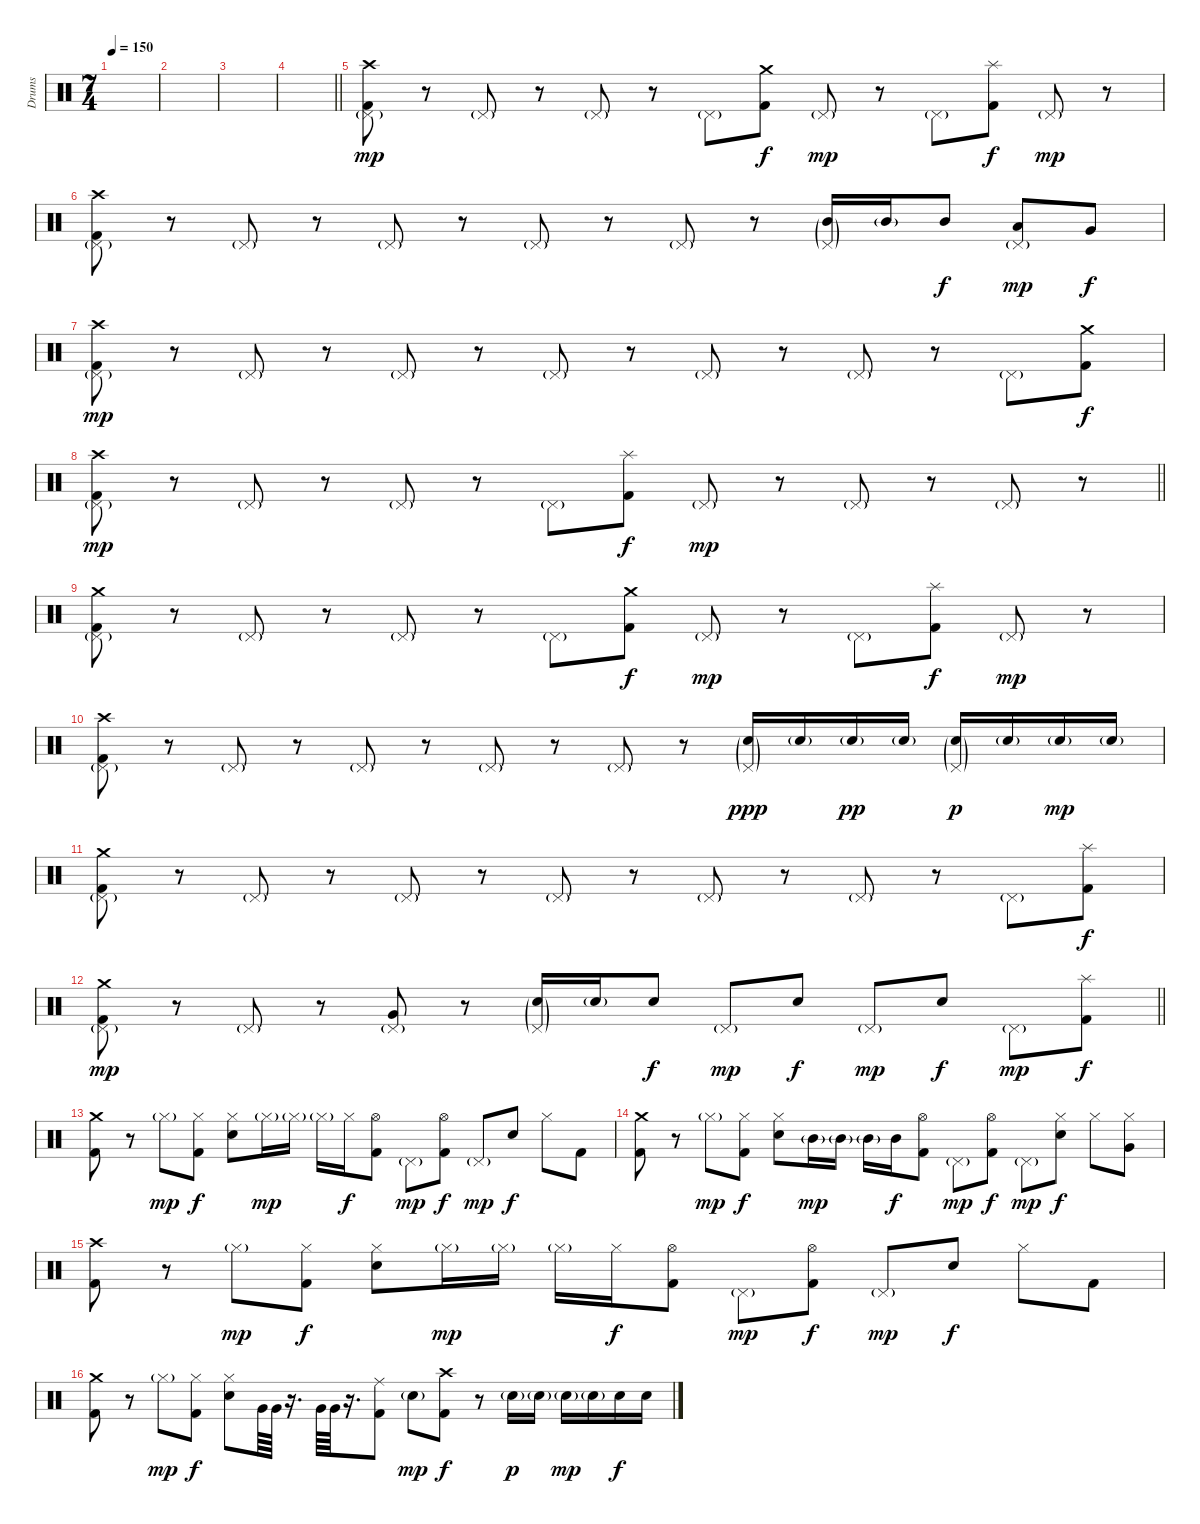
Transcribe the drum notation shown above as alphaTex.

\track ("Drums" "Drums") {instrument percussion}
\staff {score}
\articulation defaults
\ts (7 4)
\section ("" "")
\tempo 150
\clef neutral
\ks c
|
|
|
\barLineRight lightlight
|
\section ("" "")
("Crash high (hit)" "Pedal Hi-Hat (hit)"{g} "Kick (hit) 2").8{dy mp} r.8 "Pedal Hi-Hat (hit)"{g}.8 r.8 "Pedal Hi-Hat (hit)"{g}.8 r.8 "Pedal Hi-Hat (hit)"{g}.8 ("Crash medium (hit)" "Kick (hit) 2").8{dy f} "Pedal Hi-Hat (hit)"{g}.8{dy mp} r.8 "Pedal Hi-Hat (hit)"{g}.8 ("Splash (hit)" "Kick (hit) 2").8{dy f} "Pedal Hi-Hat (hit)"{g}.8{dy mp} r.8 |
("Crash high (hit)" "Pedal Hi-Hat (hit)"{g} "Kick (hit) 2").8 r.8 "Pedal Hi-Hat (hit)"{g}.8 r.8 "Pedal Hi-Hat (hit)"{g}.8 r.8 "Pedal Hi-Hat (hit)"{g}.8 r.8 "Pedal Hi-Hat (hit)"{g}.8 r.8 ("Mid Tom (hit)"{g} "Pedal Hi-Hat (hit)"{g}).16 "Mid Tom (hit)"{g}.16 "Mid Tom (hit)".8{dy f} ("Pedal Hi-Hat (hit)"{g} "Low Tom (hit)").8{dy mp} "Very Low Tom (hit)".8{dy f} |
("Crash high (hit)" "Pedal Hi-Hat (hit)"{g} "Kick (hit) 2").8{dy mp} r.8 "Pedal Hi-Hat (hit)"{g}.8 r.8 "Pedal Hi-Hat (hit)"{g}.8 r.8 "Pedal Hi-Hat (hit)"{g}.8 r.8 "Pedal Hi-Hat (hit)"{g}.8 r.8 "Pedal Hi-Hat (hit)"{g}.8 r.8 "Pedal Hi-Hat (hit)"{g}.8 ("Crash medium (hit)" "Kick (hit) 2").8{dy f} |
\barLineRight lightlight
("Crash high (hit)" "Pedal Hi-Hat (hit)"{g} "Kick (hit) 2").8{dy mp} r.8 "Pedal Hi-Hat (hit)"{g}.8 r.8 "Pedal Hi-Hat (hit)"{g}.8 r.8 "Pedal Hi-Hat (hit)"{g}.8 ("Splash (hit)" "Kick (hit) 2").8{dy f} "Pedal Hi-Hat (hit)"{g}.8{dy mp} r.8 "Pedal Hi-Hat (hit)"{g}.8 r.8 "Pedal Hi-Hat (hit)"{g}.8 r.8 |
\section ("" "")
("Crash medium (hit)" "Pedal Hi-Hat (hit)"{g} "Kick (hit) 2").8 r.8 "Pedal Hi-Hat (hit)"{g}.8 r.8 "Pedal Hi-Hat (hit)"{g}.8 r.8 "Pedal Hi-Hat (hit)"{g}.8 ("Crash medium (hit)" "Kick (hit) 2").8{dy f} "Pedal Hi-Hat (hit)"{g}.8{dy mp} r.8 "Pedal Hi-Hat (hit)"{g}.8 ("Splash (hit)" "Kick (hit) 2").8{dy f} "Pedal Hi-Hat (hit)"{g}.8{dy mp} r.8 |
("Crash high (hit)" "Pedal Hi-Hat (hit)"{g} "Kick (hit) 2").8 r.8 "Pedal Hi-Hat (hit)"{g}.8 r.8 "Pedal Hi-Hat (hit)"{g}.8 r.8 "Pedal Hi-Hat (hit)"{g}.8 r.8 "Pedal Hi-Hat (hit)"{g}.8 r.8 ("Pedal Hi-Hat (hit)"{g} "Electric Snare (hit)"{g}).16{dy ppp} "Electric Snare (hit)"{g}.16 "Electric Snare (hit)"{g}.16{dy pp} "Electric Snare (hit)"{g}.16 ("Pedal Hi-Hat (hit)"{g} "Electric Snare (hit)"{g}).16{dy p} "Electric Snare (hit)"{g}.16 "Electric Snare (hit)"{g}.16{dy mp} "Electric Snare (hit)"{g}.16 |
("Crash medium (hit)" "Pedal Hi-Hat (hit)"{g} "Kick (hit) 2").8 r.8 "Pedal Hi-Hat (hit)"{g}.8 r.8 "Pedal Hi-Hat (hit)"{g}.8 r.8 "Pedal Hi-Hat (hit)"{g}.8 r.8 "Pedal Hi-Hat (hit)"{g}.8 r.8 "Pedal Hi-Hat (hit)"{g}.8 r.8 "Pedal Hi-Hat (hit)"{g}.8 ("Splash (hit)" "Kick (hit) 2").8{dy f} |
\barLineRight lightlight
("Crash medium (hit)" "Pedal Hi-Hat (hit)"{g} "Kick (hit) 2").8{dy mp} r.8 "Pedal Hi-Hat (hit)"{g}.8 r.8 ("Pedal Hi-Hat (hit)"{g} "Very Low Tom (hit)").8 r.8 ("Pedal Hi-Hat (hit)"{g} "Electric Snare (hit)"{g}).16 "Electric Snare (hit)"{g}.16 "Electric Snare (hit)".8{dy f} "Pedal Hi-Hat (hit)"{g}.8{dy mp} "Electric Snare (hit)".8{dy f} "Pedal Hi-Hat (hit)"{g}.8{dy mp} "Electric Snare (hit)".8{dy f} "Pedal Hi-Hat (hit)"{g}.8{dy mp} ("Splash (hit)" "Kick (hit) 2").8{dy f} |
\section ("" "")
("Crash medium (hit)" "Kick (hit) 2").8 r.8 "Hi-Hat (closed)"{g}.8{dy mp} ("Hi-Hat (closed)" "Kick (hit) 2").8{dy f} ("Hi-Hat (closed)" "Electric Snare (hit)").8 "Hi-Hat (closed)"{g}.16{dy mp} "Hi-Hat (closed)"{g}.16 "Hi-Hat (closed)"{g}.16 "Hi-Hat (closed)".16{dy f} ("Hi-Hat (open)" "Kick (hit) 2").8 "Pedal Hi-Hat (hit)"{g}.8{dy mp} ("Hi-Hat (open)" "Kick (hit) 2").8{dy f} "Pedal Hi-Hat (hit)"{g}.8{dy mp} "Electric Snare (hit)".8{dy f} "Hi-Hat (closed)".8 "Kick (hit) 2".8 |
("Crash medium (hit)" "Kick (hit) 2").8 r.8 "Hi-Hat (closed)"{g}.8{dy mp} ("Hi-Hat (closed)" "Kick (hit) 2").8{dy f} ("Hi-Hat (closed)" "Electric Snare (hit)").8 "Mid Tom (hit)"{g}.16{dy mp} "Mid Tom (hit)"{g}.16 "Mid Tom (hit)"{g}.16 "Mid Tom (hit)".16{dy f} ("Hi-Hat (open)" "Kick (hit) 2").8 "Pedal Hi-Hat (hit)"{g}.8{dy mp} ("Hi-Hat (open)" "Kick (hit) 2").8{dy f} "Pedal Hi-Hat (hit)"{g}.8{dy mp} ("Hi-Hat (closed)" "Electric Snare (hit)").8{dy f} "Hi-Hat (closed)".8 ("Hi-Hat (closed)" "Very Low Tom (hit)").8 |
("Crash high (hit)" "Kick (hit) 2").8 r.8 "Hi-Hat (closed)"{g}.8{dy mp} ("Hi-Hat (closed)" "Kick (hit) 2").8{dy f} ("Hi-Hat (closed)" "Electric Snare (hit)").8 "Hi-Hat (closed)"{g}.16{dy mp} "Hi-Hat (closed)"{g}.16 "Hi-Hat (closed)"{g}.16 "Hi-Hat (closed)".16{dy f} ("Hi-Hat (open)" "Kick (hit) 2").8 "Pedal Hi-Hat (hit)"{g}.8{dy mp} ("Hi-Hat (open)" "Kick (hit) 2").8{dy f} "Pedal Hi-Hat (hit)"{g}.8{dy mp} "Electric Snare (hit)".8{dy f} "Hi-Hat (closed)".8 "Kick (hit) 2".8 |
("Crash medium (hit)" "Kick (hit) 2").8 r.8 "Hi-Hat (closed)"{g}.8{dy mp} ("Hi-Hat (closed)" "Kick (hit) 2").8{dy f} ("Hi-Hat (closed)" "Electric Snare (hit)").8 "Very Low Tom (hit)".64 "Very Low Tom (hit)".64 r.16{d} "Very Low Tom (hit)".64 "Very Low Tom (hit)".64 r.16{d} ("Ride (middle)" "Kick (hit) 2").8 "Electric Snare (hit)"{g}.8{dy mp} ("Crash high (hit)" "Kick (hit) 2").8{dy f} r.8 "Electric Snare (hit)"{g}.16{dy p} "Electric Snare (hit)"{g}.16 "Electric Snare (hit)"{g}.16{dy mp} "Electric Snare (hit)"{g}.16 "Electric Snare (hit)".16{dy f} "Electric Snare (hit)".16
